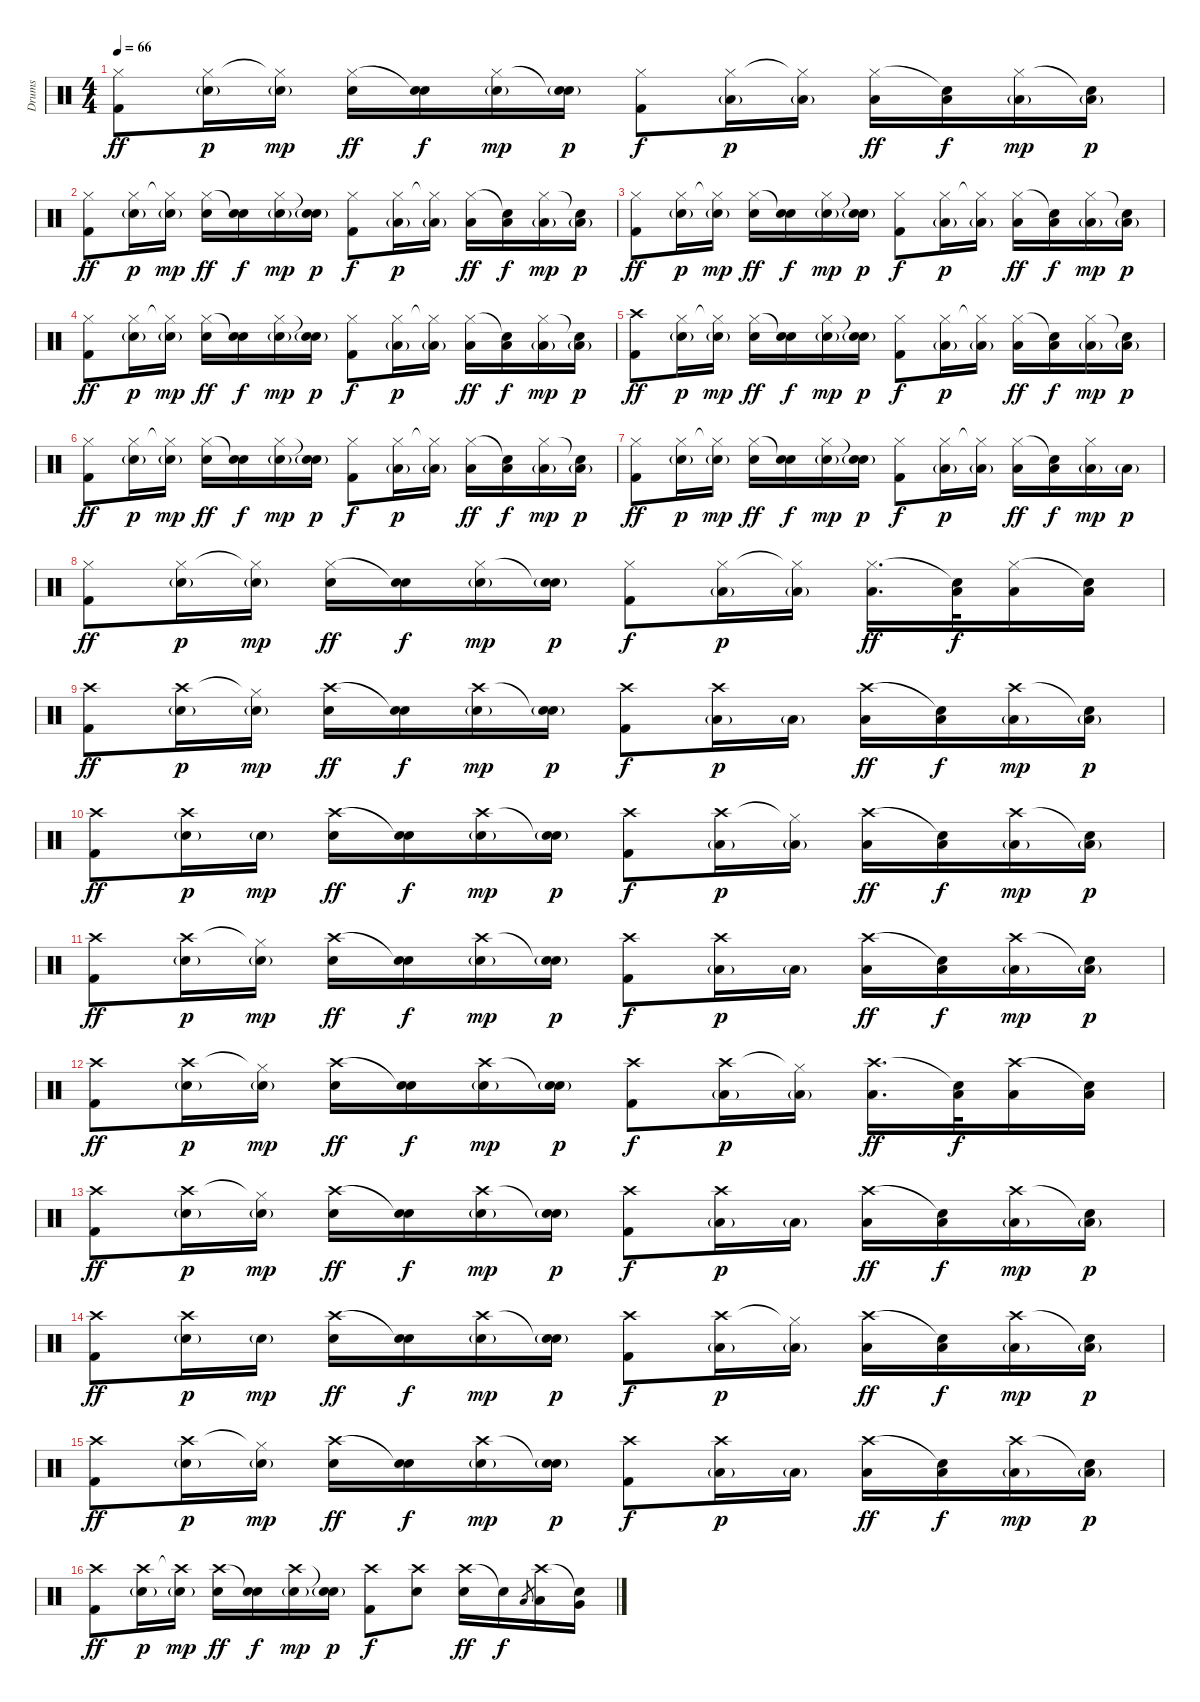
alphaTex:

\track ("Drums" "Drums") {instrument percussion}
\staff {score}
\articulation defaults
\ts (4 4)
\tempo 66
\clef neutral
\ks c
("Hi-Hat (closed)" "Kick (hit) 2").8{dy ff} ("Hi-Hat (closed)" "Snare (hit) 2"{g}).16{dy p} ("Hi-Hat (closed)"{t} "Snare (hit) 2"{g}).16{dy mp} ("Hi-Hat (closed)" "Snare (hit) 2").16{dy ff} ("Snare (hit)"{t} "Snare (hit) 2").16{dy f} ("Hi-Hat (closed)" "Snare (hit) 2"{g}).16{dy mp} ("Snare (hit)"{t} "Snare (hit) 2"{g}).16{dy p} ("Hi-Hat (closed)" "Kick (hit) 2").8{dy f} ("Hi-Hat (closed)" "Low Floor Tom (hit)"{g}).16{dy p} ("Hi-Hat (closed)"{t} "Low Floor Tom (hit)"{g}).16 ("Hi-Hat (closed)" "Low Floor Tom (hit)").16{dy ff} ("Snare (hit)"{t} "Low Floor Tom (hit)").16{dy f} ("Hi-Hat (closed)" "Low Floor Tom (hit)"{g}).16{dy mp} ("Snare (hit)"{t} "Low Floor Tom (hit)"{g}).16{dy p} |
("Hi-Hat (closed)" "Kick (hit) 2").8{dy ff} ("Hi-Hat (closed)" "Snare (hit) 2"{g}).16{dy p} ("Hi-Hat (closed)"{t} "Snare (hit) 2"{g}).16{dy mp} ("Hi-Hat (closed)" "Snare (hit) 2").16{dy ff} ("Snare (hit)"{t} "Snare (hit) 2").16{dy f} ("Hi-Hat (closed)" "Snare (hit) 2"{g}).16{dy mp} ("Snare (hit)"{t} "Snare (hit) 2"{g}).16{dy p} ("Hi-Hat (closed)" "Kick (hit) 2").8{dy f} ("Hi-Hat (closed)" "Low Floor Tom (hit)"{g}).16{dy p} ("Hi-Hat (closed)"{t} "Low Floor Tom (hit)"{g}).16 ("Hi-Hat (closed)" "Low Floor Tom (hit)").16{dy ff} ("Snare (hit)"{t} "Low Floor Tom (hit)").16{dy f} ("Hi-Hat (closed)" "Low Floor Tom (hit)"{g}).16{dy mp} ("Snare (hit)"{t} "Low Floor Tom (hit)"{g}).16{dy p} |
("Hi-Hat (closed)" "Kick (hit) 2").8{dy ff} ("Hi-Hat (closed)" "Snare (hit) 2"{g}).16{dy p} ("Hi-Hat (closed)"{t} "Snare (hit) 2"{g}).16{dy mp} ("Hi-Hat (closed)" "Snare (hit) 2").16{dy ff} ("Snare (hit)"{t} "Snare (hit) 2").16{dy f} ("Hi-Hat (closed)" "Snare (hit) 2"{g}).16{dy mp} ("Snare (hit)"{t} "Snare (hit) 2"{g}).16{dy p} ("Hi-Hat (closed)" "Kick (hit) 2").8{dy f} ("Hi-Hat (closed)" "Low Floor Tom (hit)"{g}).16{dy p} ("Hi-Hat (closed)"{t} "Low Floor Tom (hit)"{g}).16 ("Hi-Hat (closed)" "Low Floor Tom (hit)").16{dy ff} ("Snare (hit)"{t} "Low Floor Tom (hit)").16{dy f} ("Hi-Hat (closed)" "Low Floor Tom (hit)"{g}).16{dy mp} ("Snare (hit)"{t} "Low Floor Tom (hit)"{g}).16{dy p} |
("Hi-Hat (closed)" "Kick (hit) 2").8{dy ff} ("Hi-Hat (closed)" "Snare (hit) 2"{g}).16{dy p} ("Hi-Hat (closed)"{t} "Snare (hit) 2"{g}).16{dy mp} ("Hi-Hat (closed)" "Snare (hit) 2").16{dy ff} ("Snare (hit)"{t} "Snare (hit) 2").16{dy f} ("Hi-Hat (closed)" "Snare (hit) 2"{g}).16{dy mp} ("Snare (hit)"{t} "Snare (hit) 2"{g}).16{dy p} ("Hi-Hat (closed)" "Kick (hit) 2").8{dy f} ("Hi-Hat (closed)" "Low Floor Tom (hit)"{g}).16{dy p} ("Hi-Hat (closed)"{t} "Low Floor Tom (hit)"{g}).16 ("Hi-Hat (closed)" "Low Floor Tom (hit)").16{dy ff} ("Snare (hit)"{t} "Low Floor Tom (hit)").16{dy f} ("Hi-Hat (closed)" "Low Floor Tom (hit)"{g}).16{dy mp} ("Snare (hit)"{t} "Low Floor Tom (hit)"{g}).16{dy p} |
("Crash high (hit)" "Kick (hit) 2").8{dy ff} ("Hi-Hat (closed)" "Snare (hit) 2"{g}).16{dy p} ("Hi-Hat (closed)"{t} "Snare (hit) 2"{g}).16{dy mp} ("Hi-Hat (closed)" "Snare (hit) 2").16{dy ff} ("Snare (hit)"{t} "Snare (hit) 2").16{dy f} ("Hi-Hat (closed)" "Snare (hit) 2"{g}).16{dy mp} ("Snare (hit)"{t} "Snare (hit) 2"{g}).16{dy p} ("Hi-Hat (closed)" "Kick (hit) 2").8{dy f} ("Hi-Hat (closed)" "Low Floor Tom (hit)"{g}).16{dy p} ("Hi-Hat (closed)"{t} "Low Floor Tom (hit)"{g}).16 ("Hi-Hat (closed)" "Low Floor Tom (hit)").16{dy ff} ("Snare (hit)"{t} "Low Floor Tom (hit)").16{dy f} ("Hi-Hat (closed)" "Low Floor Tom (hit)"{g}).16{dy mp} ("Snare (hit)"{t} "Low Floor Tom (hit)"{g}).16{dy p} |
("Hi-Hat (closed)" "Kick (hit) 2").8{dy ff} ("Hi-Hat (closed)" "Snare (hit) 2"{g}).16{dy p} ("Hi-Hat (closed)"{t} "Snare (hit) 2"{g}).16{dy mp} ("Hi-Hat (closed)" "Snare (hit) 2").16{dy ff} ("Snare (hit)"{t} "Snare (hit) 2").16{dy f} ("Hi-Hat (closed)" "Snare (hit) 2"{g}).16{dy mp} ("Snare (hit)"{t} "Snare (hit) 2"{g}).16{dy p} ("Hi-Hat (closed)" "Kick (hit) 2").8{dy f} ("Hi-Hat (closed)" "Low Floor Tom (hit)"{g}).16{dy p} ("Hi-Hat (closed)"{t} "Low Floor Tom (hit)"{g}).16 ("Hi-Hat (closed)" "Low Floor Tom (hit)").16{dy ff} ("Snare (hit)"{t} "Low Floor Tom (hit)").16{dy f} ("Hi-Hat (closed)" "Low Floor Tom (hit)"{g}).16{dy mp} ("Snare (hit)"{t} "Low Floor Tom (hit)"{g}).16{dy p} |
("Hi-Hat (closed)" "Kick (hit) 2").8{dy ff} ("Hi-Hat (closed)" "Snare (hit) 2"{g}).16{dy p} ("Hi-Hat (closed)"{t} "Snare (hit) 2"{g}).16{dy mp} ("Hi-Hat (closed)" "Snare (hit) 2").16{dy ff} ("Snare (hit)"{t} "Snare (hit) 2").16{dy f} ("Hi-Hat (closed)" "Snare (hit) 2"{g}).16{dy mp} ("Snare (hit)"{t} "Snare (hit) 2"{g}).16{dy p} ("Hi-Hat (closed)" "Kick (hit) 2").8{dy f} ("Hi-Hat (closed)" "Low Floor Tom (hit)"{g}).16{dy p} ("Hi-Hat (closed)"{t} "Low Floor Tom (hit)"{g}).16 ("Hi-Hat (closed)" "Low Floor Tom (hit)").16{dy ff} ("Snare (hit)"{t} "Low Floor Tom (hit)").16{dy f} ("Hi-Hat (closed)" "Low Floor Tom (hit)"{g}).16{dy mp} "Low Floor Tom (hit)"{g}.16{dy p} |
("Hi-Hat (closed)" "Kick (hit) 2").8{dy ff} ("Hi-Hat (closed)" "Snare (hit) 2"{g}).16{dy p} ("Hi-Hat (closed)"{t} "Snare (hit) 2"{g}).16{dy mp} ("Hi-Hat (closed)" "Snare (hit) 2").16{dy ff} ("Snare (hit)"{t} "Snare (hit) 2").16{dy f} ("Hi-Hat (closed)" "Snare (hit) 2"{g}).16{dy mp} ("Snare (hit)"{t} "Snare (hit) 2"{g}).16{dy p} ("Hi-Hat (closed)" "Kick (hit) 2").8{dy f} ("Hi-Hat (closed)" "Low Floor Tom (hit)"{g}).16{dy p} ("Hi-Hat (closed)"{t} "Low Floor Tom (hit)"{g}).16 ("Hi-Hat (closed)" "Low Floor Tom (hit)").16{d dy ff} ("Snare (hit)"{t} "Low Floor Tom (hit)").32{dy f} ("Hi-Hat (closed)" "Low Floor Tom (hit)").16 ("Snare (hit)"{t} "Low Floor Tom (hit)").16 |
("Crash high (hit)" "Kick (hit) 2").8{dy ff} ("Crash high (hit)" "Snare (hit) 2"{g}).16{dy p} ("Hi-Hat (closed)"{t} "Snare (hit) 2"{g}).16{dy mp} ("Crash high (hit)" "Snare (hit) 2").16{dy ff} ("Snare (hit)"{t} "Snare (hit) 2").16{dy f} ("Crash high (hit)" "Snare (hit) 2"{g}).16{dy mp} ("Snare (hit)"{t} "Snare (hit) 2"{g}).16{dy p} ("Crash high (hit)" "Kick (hit) 2").8{dy f} ("Crash high (hit)" "Low Floor Tom (hit)"{g}).16{dy p} "Low Floor Tom (hit)"{g}.16 ("Crash high (hit)" "Low Floor Tom (hit)").16{dy ff} ("Snare (hit)"{t} "Low Floor Tom (hit)").16{dy f} ("Crash high (hit)" "Low Floor Tom (hit)"{g}).16{dy mp} ("Snare (hit)"{t} "Low Floor Tom (hit)"{g}).16{dy p} |
("Crash high (hit)" "Kick (hit) 2").8{dy ff} ("Crash high (hit)" "Snare (hit) 2"{g}).16{dy p} "Snare (hit) 2"{g}.16{dy mp} ("Crash high (hit)" "Snare (hit) 2").16{dy ff} ("Snare (hit)"{t} "Snare (hit) 2").16{dy f} ("Crash high (hit)" "Snare (hit) 2"{g}).16{dy mp} ("Snare (hit)"{t} "Snare (hit) 2"{g}).16{dy p} ("Crash high (hit)" "Kick (hit) 2").8{dy f} ("Crash high (hit)" "Low Floor Tom (hit)"{g}).16{dy p} ("Hi-Hat (closed)"{t} "Low Floor Tom (hit)"{g}).16 ("Crash high (hit)" "Low Floor Tom (hit)").16{dy ff} ("Snare (hit)"{t} "Low Floor Tom (hit)").16{dy f} ("Crash high (hit)" "Low Floor Tom (hit)"{g}).16{dy mp} ("Snare (hit)"{t} "Low Floor Tom (hit)"{g}).16{dy p} |
("Crash high (hit)" "Kick (hit) 2").8{dy ff} ("Crash high (hit)" "Snare (hit) 2"{g}).16{dy p} ("Hi-Hat (closed)"{t} "Snare (hit) 2"{g}).16{dy mp} ("Crash high (hit)" "Snare (hit) 2").16{dy ff} ("Snare (hit)"{t} "Snare (hit) 2").16{dy f} ("Crash high (hit)" "Snare (hit) 2"{g}).16{dy mp} ("Snare (hit)"{t} "Snare (hit) 2"{g}).16{dy p} ("Crash high (hit)" "Kick (hit) 2").8{dy f} ("Crash high (hit)" "Low Floor Tom (hit)"{g}).16{dy p} "Low Floor Tom (hit)"{g}.16 ("Crash high (hit)" "Low Floor Tom (hit)").16{dy ff} ("Snare (hit)"{t} "Low Floor Tom (hit)").16{dy f} ("Crash high (hit)" "Low Floor Tom (hit)"{g}).16{dy mp} ("Snare (hit)"{t} "Low Floor Tom (hit)"{g}).16{dy p} |
("Crash high (hit)" "Kick (hit) 2").8{dy ff} ("Crash high (hit)" "Snare (hit) 2"{g}).16{dy p} ("Hi-Hat (closed)"{t} "Snare (hit) 2"{g}).16{dy mp} ("Crash high (hit)" "Snare (hit) 2").16{dy ff} ("Snare (hit)"{t} "Snare (hit) 2").16{dy f} ("Crash high (hit)" "Snare (hit) 2"{g}).16{dy mp} ("Snare (hit)"{t} "Snare (hit) 2"{g}).16{dy p} ("Crash high (hit)" "Kick (hit) 2").8{dy f} ("Crash high (hit)" "Low Floor Tom (hit)"{g}).16{dy p} ("Hi-Hat (closed)"{t} "Low Floor Tom (hit)"{g}).16 ("Crash high (hit)" "Low Floor Tom (hit)").16{d dy ff} ("Snare (hit)"{t} "Low Floor Tom (hit)").32{dy f} ("Crash high (hit)" "Low Floor Tom (hit)").16 ("Snare (hit)"{t} "Low Floor Tom (hit)").16 |
("Crash high (hit)" "Kick (hit) 2").8{dy ff} ("Crash high (hit)" "Snare (hit) 2"{g}).16{dy p} ("Hi-Hat (closed)"{t} "Snare (hit) 2"{g}).16{dy mp} ("Crash high (hit)" "Snare (hit) 2").16{dy ff} ("Snare (hit)"{t} "Snare (hit) 2").16{dy f} ("Crash high (hit)" "Snare (hit) 2"{g}).16{dy mp} ("Snare (hit)"{t} "Snare (hit) 2"{g}).16{dy p} ("Crash high (hit)" "Kick (hit) 2").8{dy f} ("Crash high (hit)" "Low Floor Tom (hit)"{g}).16{dy p} "Low Floor Tom (hit)"{g}.16 ("Crash high (hit)" "Low Floor Tom (hit)").16{dy ff} ("Snare (hit)"{t} "Low Floor Tom (hit)").16{dy f} ("Crash high (hit)" "Low Floor Tom (hit)"{g}).16{dy mp} ("Snare (hit)"{t} "Low Floor Tom (hit)"{g}).16{dy p} |
("Crash high (hit)" "Kick (hit) 2").8{dy ff} ("Crash high (hit)" "Snare (hit) 2"{g}).16{dy p} "Snare (hit) 2"{g}.16{dy mp} ("Crash high (hit)" "Snare (hit) 2").16{dy ff} ("Snare (hit)"{t} "Snare (hit) 2").16{dy f} ("Crash high (hit)" "Snare (hit) 2"{g}).16{dy mp} ("Snare (hit)"{t} "Snare (hit) 2"{g}).16{dy p} ("Crash high (hit)" "Kick (hit) 2").8{dy f} ("Crash high (hit)" "Low Floor Tom (hit)"{g}).16{dy p} ("Hi-Hat (closed)"{t} "Low Floor Tom (hit)"{g}).16 ("Crash high (hit)" "Low Floor Tom (hit)").16{dy ff} ("Snare (hit)"{t} "Low Floor Tom (hit)").16{dy f} ("Crash high (hit)" "Low Floor Tom (hit)"{g}).16{dy mp} ("Snare (hit)"{t} "Low Floor Tom (hit)"{g}).16{dy p} |
("Crash high (hit)" "Kick (hit) 2").8{dy ff} ("Crash high (hit)" "Snare (hit) 2"{g}).16{dy p} ("Hi-Hat (closed)"{t} "Snare (hit) 2"{g}).16{dy mp} ("Crash high (hit)" "Snare (hit) 2").16{dy ff} ("Snare (hit)"{t} "Snare (hit) 2").16{dy f} ("Crash high (hit)" "Snare (hit) 2"{g}).16{dy mp} ("Snare (hit)"{t} "Snare (hit) 2"{g}).16{dy p} ("Crash high (hit)" "Kick (hit) 2").8{dy f} ("Crash high (hit)" "Low Floor Tom (hit)"{g}).16{dy p} "Low Floor Tom (hit)"{g}.16 ("Crash high (hit)" "Low Floor Tom (hit)").16{dy ff} ("Snare (hit)"{t} "Low Floor Tom (hit)").16{dy f} ("Crash high (hit)" "Low Floor Tom (hit)"{g}).16{dy mp} ("Snare (hit)"{t} "Low Floor Tom (hit)"{g}).16{dy p} |
("Crash high (hit)" "Kick (hit) 2").8{dy ff} ("Crash high (hit)" "Snare (hit) 2"{g}).16{dy p} ("Crash high (hit)"{t} "Snare (hit) 2"{g}).16{dy mp} ("Crash high (hit)" "Snare (hit) 2").16{dy ff} ("Snare (hit)"{t} "Snare (hit) 2").16{dy f} ("Crash high (hit)" "Snare (hit) 2"{g}).16{dy mp} ("Snare (hit)"{t} "Snare (hit) 2"{g}).16{dy p} ("Crash high (hit)" "Kick (hit) 2").8{dy f} ("Crash high (hit)" "Snare (hit) 2").8 ("Crash high (hit)" "Snare (hit) 2").16{dy ff} "Snare (hit)"{t}.16{dy f} "Low Floor Tom (hit)".8{gr} ("Crash high (hit)" "Low Floor Tom (hit)").16 ("Snare (hit)"{t} "Very Low Tom (hit)").16
